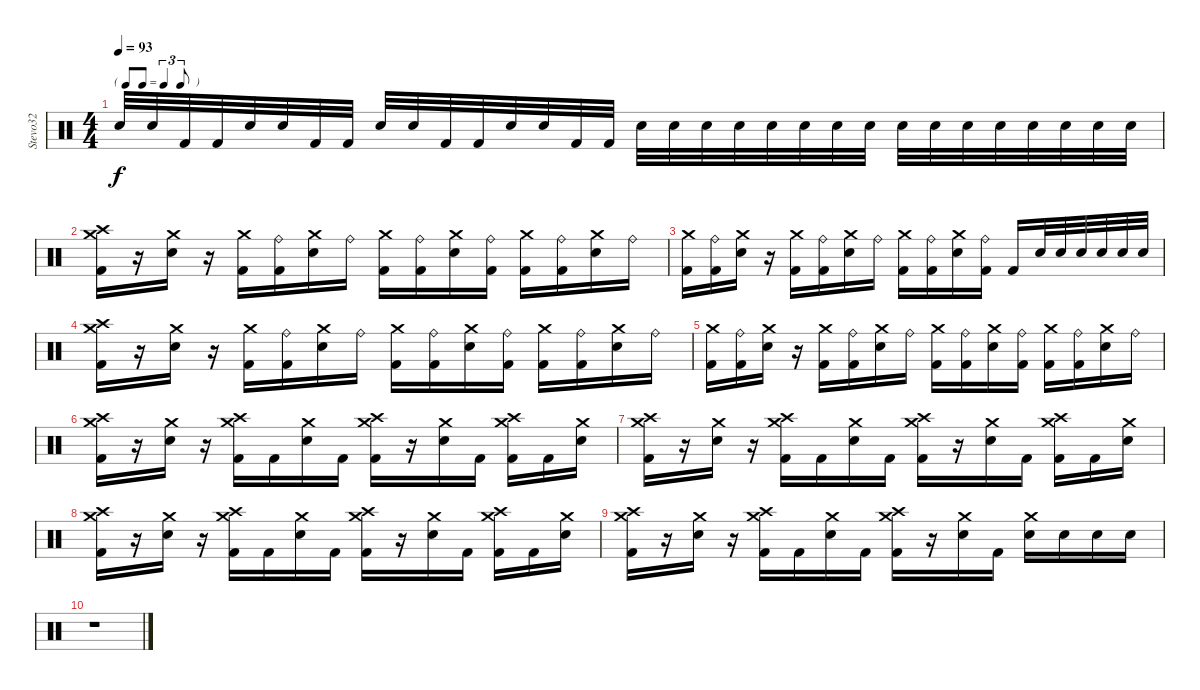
\track ("Stevo32" "Stevo32") {instrument percussion}
\staff {score}
\articulation defaults
\ts (4 4)
\tf triplet8th
\tempo 93
\clef neutral
\ks c "Electric Snare (hit)".32{dy f} "Electric Snare (hit)".32 "Kick (hit) 2".32 "Kick (hit) 2".32 "Electric Snare (hit)".32 "Electric Snare (hit)".32 "Kick (hit) 2".32 "Kick (hit) 2".32 "Electric Snare (hit)".32 "Electric Snare (hit)".32 "Kick (hit) 2".32 "Kick (hit) 2".32 "Electric Snare (hit)".32 "Electric Snare (hit)".32 "Kick (hit) 2".32 "Kick (hit) 2".32 "Electric Snare (hit)".32 "Electric Snare (hit)".32 "Electric Snare (hit)".32 "Electric Snare (hit)".32 "Electric Snare (hit)".32 "Electric Snare (hit)".32 "Electric Snare (hit)".32 "Electric Snare (hit)".32 "Electric Snare (hit)".32 "Electric Snare (hit)".32 "Electric Snare (hit)".32 "Electric Snare (hit)".32 "Electric Snare (hit)".32 "Electric Snare (hit)".32 "Electric Snare (hit)".32 "Electric Snare (hit)".32
|
("Crash medium (hit)" "Crash high (hit)" "Kick (hit) 2").16 r.16 ("Crash medium (hit)" "Electric Snare (hit)").16 r.16 ("Crash medium (hit)" "Kick (hit) 2").16 ("Ride (bell)" "Kick (hit) 2").16 ("Crash medium (hit)" "Electric Snare (hit)").16 "Ride (bell)".16 ("Crash medium (hit)" "Kick (hit) 2").16 ("Ride (bell)" "Kick (hit) 2").16 ("Crash medium (hit)" "Electric Snare (hit)").16 ("Ride (bell)" "Kick (hit) 2").16 ("Crash medium (hit)" "Kick (hit) 2").16 ("Ride (bell)" "Kick (hit) 2").16 ("Crash medium (hit)" "Electric Snare (hit)").16 "Ride (bell)".16 |
("Crash medium (hit)" "Kick (hit) 2").16 ("Ride (bell)" "Kick (hit) 2").16 ("Crash medium (hit)" "Electric Snare (hit)").16 r.16 ("Crash medium (hit)" "Kick (hit) 2").16 ("Ride (bell)" "Kick (hit) 2").16 ("Crash medium (hit)" "Electric Snare (hit)").16 "Ride (bell)".16 ("Crash medium (hit)" "Kick (hit) 2").16 ("Ride (bell)" "Kick (hit) 2").16 ("Crash medium (hit)" "Electric Snare (hit)").16 ("Ride (bell)" "Kick (hit) 2").16 "Kick (hit) 2".16 "Electric Snare (hit)".32 "Electric Snare (hit)".32 "Electric Snare (hit)".32 "Electric Snare (hit)".32 "Electric Snare (hit)".32 "Electric Snare (hit)".32 |
("Crash medium (hit)" "Crash high (hit)" "Kick (hit) 2").16 r.16 ("Crash medium (hit)" "Electric Snare (hit)").16 r.16 ("Crash medium (hit)" "Kick (hit) 2").16 ("Ride (bell)" "Kick (hit) 2").16 ("Crash medium (hit)" "Electric Snare (hit)").16 "Ride (bell)".16 ("Crash medium (hit)" "Kick (hit) 2").16 ("Ride (bell)" "Kick (hit) 2").16 ("Crash medium (hit)" "Electric Snare (hit)").16 ("Ride (bell)" "Kick (hit) 2").16 ("Crash medium (hit)" "Kick (hit) 2").16 ("Ride (bell)" "Kick (hit) 2").16 ("Crash medium (hit)" "Electric Snare (hit)").16 "Ride (bell)".16 |
("Crash medium (hit)" "Kick (hit) 2").16 ("Ride (bell)" "Kick (hit) 2").16 ("Crash medium (hit)" "Electric Snare (hit)").16 r.16 ("Crash medium (hit)" "Kick (hit) 2").16 ("Ride (bell)" "Kick (hit) 2").16 ("Crash medium (hit)" "Electric Snare (hit)").16 "Ride (bell)".16 ("Crash medium (hit)" "Kick (hit) 2").16 ("Ride (bell)" "Kick (hit) 2").16 ("Crash medium (hit)" "Electric Snare (hit)").16 ("Ride (bell)" "Kick (hit) 2").16 ("Crash medium (hit)" "Kick (hit) 2").16 ("Ride (bell)" "Kick (hit) 2").16 ("Crash medium (hit)" "Electric Snare (hit)").16 "Ride (bell)".16 |
("Crash medium (hit)" "Crash high (hit)" "Kick (hit) 2").16 r.16 ("Crash medium (hit)" "Electric Snare (hit)").16 r.16 ("Crash high (hit)" "Crash medium (hit)" "Kick (hit) 2").16 "Kick (hit) 2".16 ("Crash medium (hit)" "Electric Snare (hit)").16 "Kick (hit) 2".16 ("Crash high (hit)" "Crash medium (hit)" "Kick (hit) 2").16 r.16 ("Crash medium (hit)" "Electric Snare (hit)").16 "Kick (hit) 2".16 ("Crash high (hit)" "Crash medium (hit)" "Kick (hit) 2").16 "Kick (hit) 2".16 ("Crash medium (hit)" "Electric Snare (hit)").16 |
("Crash medium (hit)" "Crash high (hit)" "Kick (hit) 2").16 r.16 ("Crash medium (hit)" "Electric Snare (hit)").16 r.16 ("Crash high (hit)" "Crash medium (hit)" "Kick (hit) 2").16 "Kick (hit) 2".16 ("Crash medium (hit)" "Electric Snare (hit)").16 "Kick (hit) 2".16 ("Crash high (hit)" "Crash medium (hit)" "Kick (hit) 2").16 r.16 ("Crash medium (hit)" "Electric Snare (hit)").16 "Kick (hit) 2".16 ("Crash high (hit)" "Crash medium (hit)" "Kick (hit) 2").16 "Kick (hit) 2".16 ("Crash medium (hit)" "Electric Snare (hit)").16 |
("Crash medium (hit)" "Crash high (hit)" "Kick (hit) 2").16 r.16 ("Crash medium (hit)" "Electric Snare (hit)").16 r.16 ("Crash high (hit)" "Crash medium (hit)" "Kick (hit) 2").16 "Kick (hit) 2".16 ("Crash medium (hit)" "Electric Snare (hit)").16 "Kick (hit) 2".16 ("Crash high (hit)" "Crash medium (hit)" "Kick (hit) 2").16 r.16 ("Crash medium (hit)" "Electric Snare (hit)").16 "Kick (hit) 2".16 ("Crash high (hit)" "Crash medium (hit)" "Kick (hit) 2").16 "Kick (hit) 2".16 ("Crash medium (hit)" "Electric Snare (hit)").16 |
("Crash medium (hit)" "Crash high (hit)" "Kick (hit) 2").16 r.16 ("Crash medium (hit)" "Electric Snare (hit)").16 r.16 ("Crash high (hit)" "Crash medium (hit)" "Kick (hit) 2").16 "Kick (hit) 2".16 ("Crash medium (hit)" "Electric Snare (hit)").16 "Kick (hit) 2".16 ("Crash high (hit)" "Crash medium (hit)" "Kick (hit) 2").16 r.16 ("Crash medium (hit)" "Electric Snare (hit)").16 "Kick (hit) 2".16 ("Crash medium (hit)" "Electric Snare (hit)").16 "Electric Snare (hit)".16 "Electric Snare (hit)".16 "Electric Snare (hit)".16 |
r.1
